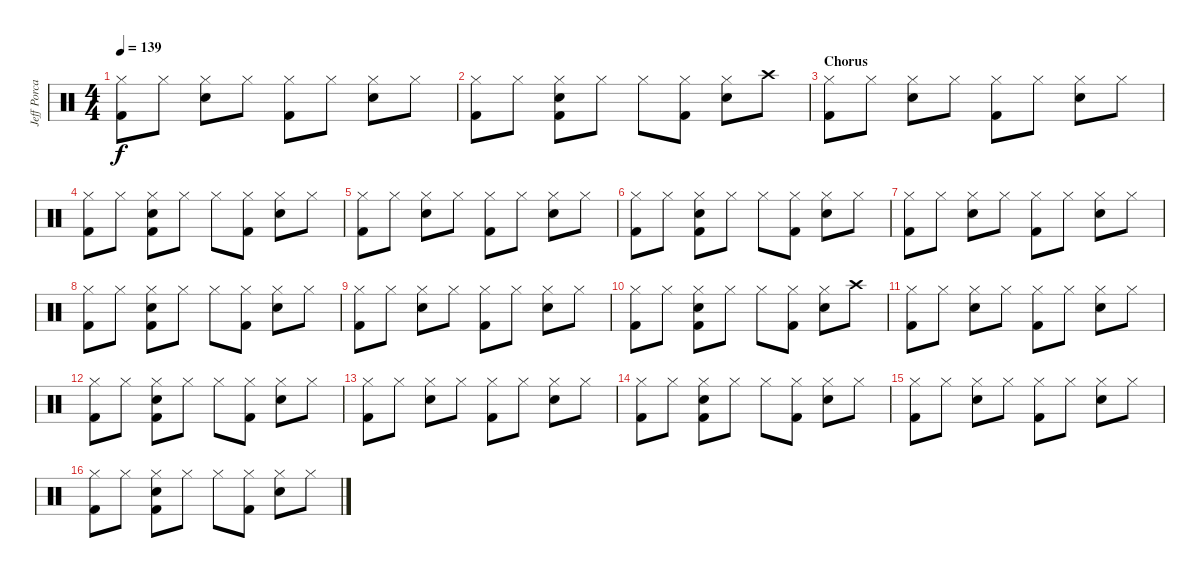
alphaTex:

\track ("Jeff Porcaro (Percussion)" "Jeff Porca") {instrument percussion}
\staff {score}
\articulation defaults
\ts (4 4)
\tempo 139
\clef neutral
\ks c
("Hi-Hat (closed)" "Kick (hit) 2").8{dy f} "Hi-Hat (closed)".8 ("Hi-Hat (closed)" "Snare (hit) 2").8 "Hi-Hat (closed)".8 ("Hi-Hat (closed)" "Kick (hit) 2").8 "Hi-Hat (closed)".8 ("Hi-Hat (closed)" "Snare (hit) 2").8 "Hi-Hat (closed)".8 |
("Hi-Hat (closed)" "Kick (hit) 2").8 "Hi-Hat (closed)".8 ("Hi-Hat (closed)" "Snare (hit) 2" "Kick (hit) 2").8 "Hi-Hat (closed)".8 "Hi-Hat (closed)".8 ("Hi-Hat (closed)" "Kick (hit) 2").8 ("Hi-Hat (closed)" "Snare (hit) 2").8 "Crash high (hit)".8 |
\section ("" "Chorus")
("Hi-Hat (closed)" "Kick (hit) 2").8 "Hi-Hat (closed)".8 ("Hi-Hat (closed)" "Snare (hit) 2").8 "Hi-Hat (closed)".8 ("Hi-Hat (closed)" "Kick (hit) 2").8 "Hi-Hat (closed)".8 ("Hi-Hat (closed)" "Snare (hit) 2").8 "Hi-Hat (closed)".8 |
("Hi-Hat (closed)" "Kick (hit) 2").8 "Hi-Hat (closed)".8 ("Hi-Hat (closed)" "Snare (hit) 2" "Kick (hit) 2").8 "Hi-Hat (closed)".8 "Hi-Hat (closed)".8 ("Hi-Hat (closed)" "Kick (hit) 2").8 ("Hi-Hat (closed)" "Snare (hit) 2").8 "Hi-Hat (closed)".8 |
("Hi-Hat (closed)" "Kick (hit) 2").8 "Hi-Hat (closed)".8 ("Hi-Hat (closed)" "Snare (hit) 2").8 "Hi-Hat (closed)".8 ("Hi-Hat (closed)" "Kick (hit) 2").8 "Hi-Hat (closed)".8 ("Hi-Hat (closed)" "Snare (hit) 2").8 "Hi-Hat (closed)".8 |
("Hi-Hat (closed)" "Kick (hit) 2").8 "Hi-Hat (closed)".8 ("Hi-Hat (closed)" "Snare (hit) 2" "Kick (hit) 2").8 "Hi-Hat (closed)".8 "Hi-Hat (closed)".8 ("Hi-Hat (closed)" "Kick (hit) 2").8 ("Hi-Hat (closed)" "Snare (hit) 2").8 "Hi-Hat (closed)".8 |
("Hi-Hat (closed)" "Kick (hit) 2").8 "Hi-Hat (closed)".8 ("Hi-Hat (closed)" "Snare (hit) 2").8 "Hi-Hat (closed)".8 ("Hi-Hat (closed)" "Kick (hit) 2").8 "Hi-Hat (closed)".8 ("Hi-Hat (closed)" "Snare (hit) 2").8 "Hi-Hat (closed)".8 |
("Hi-Hat (closed)" "Kick (hit) 2").8 "Hi-Hat (closed)".8 ("Hi-Hat (closed)" "Snare (hit) 2" "Kick (hit) 2").8 "Hi-Hat (closed)".8 "Hi-Hat (closed)".8 ("Hi-Hat (closed)" "Kick (hit) 2").8 ("Hi-Hat (closed)" "Snare (hit) 2").8 "Hi-Hat (closed)".8 |
("Hi-Hat (closed)" "Kick (hit) 2").8 "Hi-Hat (closed)".8 ("Hi-Hat (closed)" "Snare (hit) 2").8 "Hi-Hat (closed)".8 ("Hi-Hat (closed)" "Kick (hit) 2").8 "Hi-Hat (closed)".8 ("Hi-Hat (closed)" "Snare (hit) 2").8 "Hi-Hat (closed)".8 |
("Hi-Hat (closed)" "Kick (hit) 2").8 "Hi-Hat (closed)".8 ("Hi-Hat (closed)" "Snare (hit) 2" "Kick (hit) 2").8 "Hi-Hat (closed)".8 "Hi-Hat (closed)".8 ("Hi-Hat (closed)" "Kick (hit) 2").8 ("Hi-Hat (closed)" "Snare (hit) 2").8 "Crash high (hit)".8 |
("Hi-Hat (closed)" "Kick (hit) 2").8 "Hi-Hat (closed)".8 ("Hi-Hat (closed)" "Snare (hit) 2").8 "Hi-Hat (closed)".8 ("Hi-Hat (closed)" "Kick (hit) 2").8 "Hi-Hat (closed)".8 ("Hi-Hat (closed)" "Snare (hit) 2").8 "Hi-Hat (closed)".8 |
("Hi-Hat (closed)" "Kick (hit) 2").8 "Hi-Hat (closed)".8 ("Hi-Hat (closed)" "Snare (hit) 2" "Kick (hit) 2").8 "Hi-Hat (closed)".8 "Hi-Hat (closed)".8 ("Hi-Hat (closed)" "Kick (hit) 2").8 ("Hi-Hat (closed)" "Snare (hit) 2").8 "Hi-Hat (closed)".8 |
("Hi-Hat (closed)" "Kick (hit) 2").8 "Hi-Hat (closed)".8 ("Hi-Hat (closed)" "Snare (hit) 2").8 "Hi-Hat (closed)".8 ("Hi-Hat (closed)" "Kick (hit) 2").8 "Hi-Hat (closed)".8 ("Hi-Hat (closed)" "Snare (hit) 2").8 "Hi-Hat (closed)".8 |
("Hi-Hat (closed)" "Kick (hit) 2").8 "Hi-Hat (closed)".8 ("Hi-Hat (closed)" "Snare (hit) 2" "Kick (hit) 2").8 "Hi-Hat (closed)".8 "Hi-Hat (closed)".8 ("Hi-Hat (closed)" "Kick (hit) 2").8 ("Hi-Hat (closed)" "Snare (hit) 2").8 "Hi-Hat (closed)".8 |
("Hi-Hat (closed)" "Kick (hit) 2").8 "Hi-Hat (closed)".8 ("Hi-Hat (closed)" "Snare (hit) 2").8 "Hi-Hat (closed)".8 ("Hi-Hat (closed)" "Kick (hit) 2").8 "Hi-Hat (closed)".8 ("Hi-Hat (closed)" "Snare (hit) 2").8 "Hi-Hat (closed)".8 |
("Hi-Hat (closed)" "Kick (hit) 2").8 "Hi-Hat (closed)".8 ("Hi-Hat (closed)" "Snare (hit) 2" "Kick (hit) 2").8 "Hi-Hat (closed)".8 "Hi-Hat (closed)".8 ("Hi-Hat (closed)" "Kick (hit) 2").8 ("Hi-Hat (closed)" "Snare (hit) 2").8 "Hi-Hat (closed)".8
